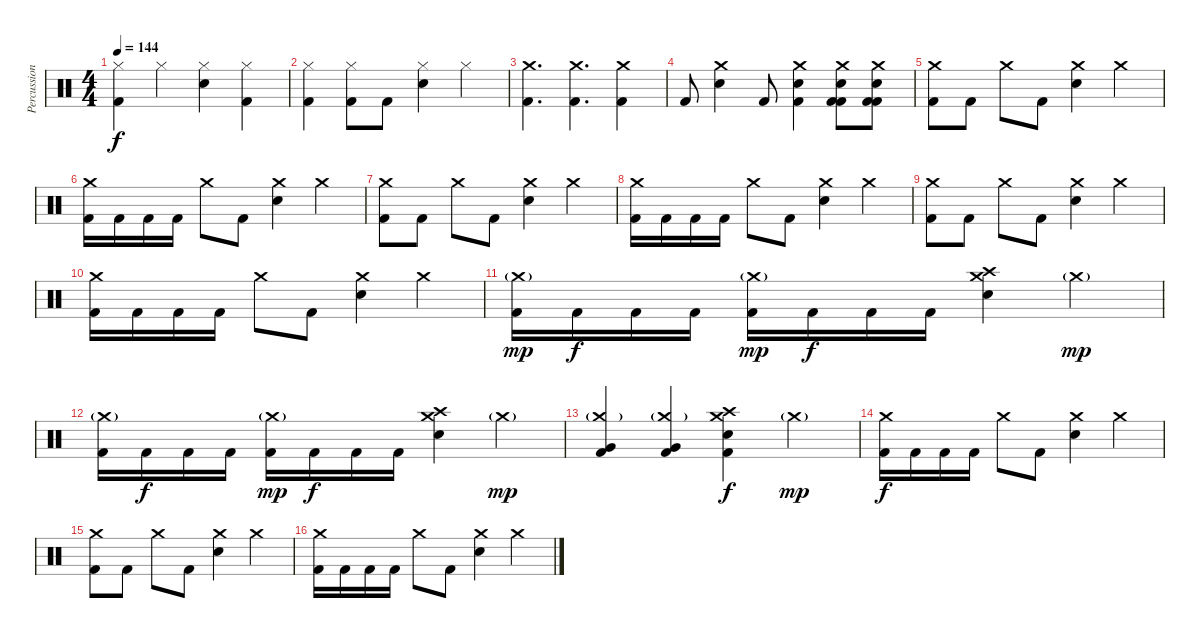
\track ("Percussion" "Percussion") {instrument percussion}
\staff {score}
\articulation defaults
\ts (4 4)
\tempo 144
\clef neutral
\ks c
("Hi-Hat (closed)" "Kick (hit) 2").4{dy f} "Hi-Hat (closed)".4 ("Hi-Hat (closed)" "Electric Snare (hit)").4 ("Hi-Hat (closed)" "Kick (hit) 2").4 |
("Hi-Hat (closed)" "Kick (hit) 2").4 ("Hi-Hat (closed)" "Kick (hit) 2").8 "Kick (hit) 2".8 ("Hi-Hat (closed)" "Electric Snare (hit)").4 "Hi-Hat (closed)".4 |
("Crash medium (hit)" "Kick (hit) 2").4{d} ("Crash medium (hit)" "Kick (hit) 2").4{d} ("Crash medium (hit)" "Kick (hit) 2").4 |
"Kick (hit) 2".8 ("Electric Snare (hit)" "Crash medium (hit)").4 "Kick (hit) 2".8 ("Electric Snare (hit)" "Kick (hit) 2" "Crash medium (hit)").4 ("Electric Snare (hit)" "Kick (hit) 2" "Crash medium (hit)" "Kick (hit) 2").8 ("Electric Snare (hit)" "Kick (hit) 2" "Crash medium (hit)" "Kick (hit) 2").8 |
("Kick (hit) 2" "Crash medium (hit)").8 "Kick (hit) 2".8 "Crash medium (hit)".8 "Kick (hit) 2".8 ("Electric Snare (hit)" "Crash medium (hit)").4 "Crash medium (hit)".4 |
("Kick (hit) 2" "Crash medium (hit)").16 "Kick (hit) 2".16 "Kick (hit) 2".16 "Kick (hit) 2".16 "Crash medium (hit)".8 "Kick (hit) 2".8 ("Electric Snare (hit)" "Crash medium (hit)").4 "Crash medium (hit)".4 |
("Kick (hit) 2" "Crash medium (hit)").8 "Kick (hit) 2".8 "Crash medium (hit)".8 "Kick (hit) 2".8 ("Electric Snare (hit)" "Crash medium (hit)").4 "Crash medium (hit)".4 |
("Kick (hit) 2" "Crash medium (hit)").16 "Kick (hit) 2".16 "Kick (hit) 2".16 "Kick (hit) 2".16 "Crash medium (hit)".8 "Kick (hit) 2".8 ("Electric Snare (hit)" "Crash medium (hit)").4 "Crash medium (hit)".4 |
("Kick (hit) 2" "Crash medium (hit)").8 "Kick (hit) 2".8 "Crash medium (hit)".8 "Kick (hit) 2".8 ("Electric Snare (hit)" "Crash medium (hit)").4 "Crash medium (hit)".4 |
("Kick (hit) 2" "Crash medium (hit)").16 "Kick (hit) 2".16 "Kick (hit) 2".16 "Kick (hit) 2".16 "Crash medium (hit)".8 "Kick (hit) 2".8 ("Electric Snare (hit)" "Crash medium (hit)").4 "Crash medium (hit)".4 |
("Kick (hit) 2" "Crash medium (hit)"{g}).16{dy mp} "Kick (hit) 2".16{dy f} "Kick (hit) 2".16 "Kick (hit) 2".16 ("Kick (hit) 2" "Crash medium (hit)"{g}).16{dy mp} "Kick (hit) 2".16{dy f} "Kick (hit) 2".16 "Kick (hit) 2".16 ("Electric Snare (hit)" "Crash medium (hit)" "Crash high (hit)").4 "Crash medium (hit)"{g}.4{dy mp} |
("Kick (hit) 2" "Crash medium (hit)"{g}).16 "Kick (hit) 2".16{dy f} "Kick (hit) 2".16 "Kick (hit) 2".16 ("Kick (hit) 2" "Crash medium (hit)"{g}).16{dy mp} "Kick (hit) 2".16{dy f} "Kick (hit) 2".16 "Kick (hit) 2".16 ("Electric Snare (hit)" "Crash medium (hit)" "Crash high (hit)").4 "Crash medium (hit)"{g}.4{dy mp} |
("Kick (hit) 2" "Very Low Tom (hit)" "Crash medium (hit)"{g}).4 ("Kick (hit) 2" "Very Low Tom (hit)" "Crash medium (hit)"{g}).4 ("Electric Snare (hit)" "Kick (hit) 2" "Crash medium (hit)" "Crash high (hit)").4{dy f} "Crash medium (hit)"{g}.4{dy mp} |
("Kick (hit) 2" "Crash medium (hit)").16{dy f} "Kick (hit) 2".16 "Kick (hit) 2".16 "Kick (hit) 2".16 "Crash medium (hit)".8 "Kick (hit) 2".8 ("Electric Snare (hit)" "Crash medium (hit)").4 "Crash medium (hit)".4 |
("Kick (hit) 2" "Crash medium (hit)").8 "Kick (hit) 2".8 "Crash medium (hit)".8 "Kick (hit) 2".8 ("Electric Snare (hit)" "Crash medium (hit)").4 "Crash medium (hit)".4 |
("Kick (hit) 2" "Crash medium (hit)").16 "Kick (hit) 2".16 "Kick (hit) 2".16 "Kick (hit) 2".16 "Crash medium (hit)".8 "Kick (hit) 2".8 ("Electric Snare (hit)" "Crash medium (hit)").4 "Crash medium (hit)".4
